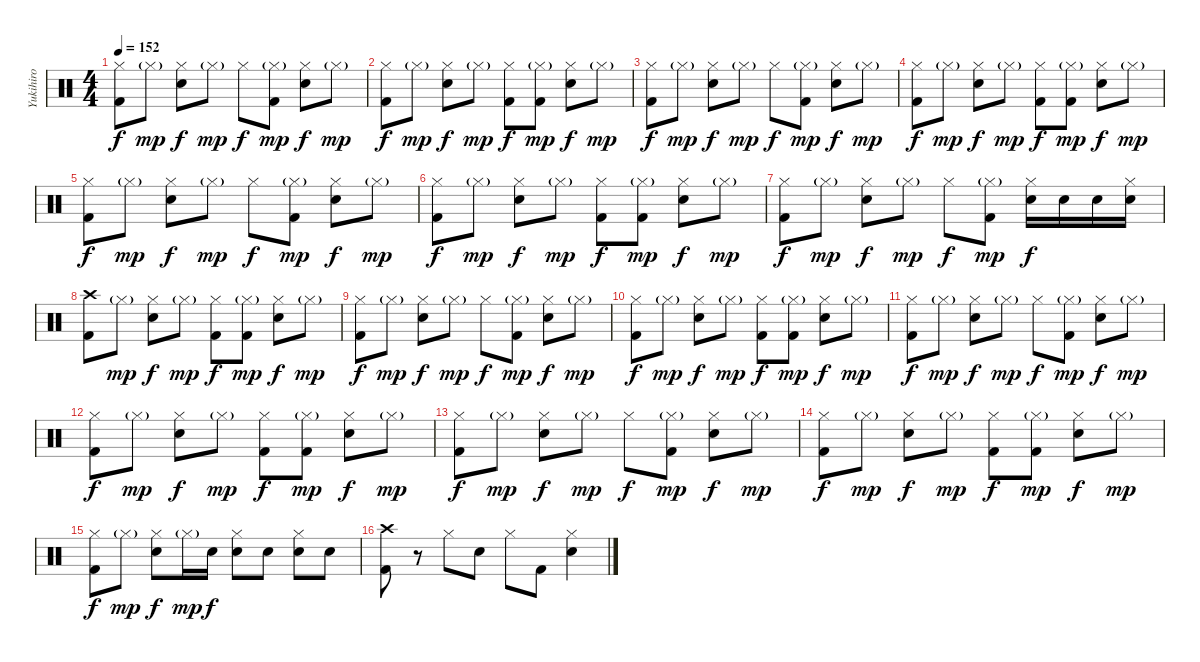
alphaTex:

\track ("Yukihiro" "Yukihiro") {instrument percussion}
\staff {score}
\articulation defaults
\ts (4 4)
\tempo 152
\clef neutral
\ks c
("Hi-Hat (closed)" "Kick (hit) 2").8{dy f} "Hi-Hat (closed)"{g}.8{dy mp} ("Hi-Hat (closed)" "Electric Snare (hit)").8{dy f} "Hi-Hat (closed)"{g}.8{dy mp} "Hi-Hat (closed)".8{dy f} ("Hi-Hat (closed)"{g} "Kick (hit) 2").8{dy mp} ("Hi-Hat (closed)" "Electric Snare (hit)").8{dy f} "Hi-Hat (closed)"{g}.8{dy mp} |
("Hi-Hat (closed)" "Kick (hit) 2").8{dy f} "Hi-Hat (closed)"{g}.8{dy mp} ("Hi-Hat (closed)" "Electric Snare (hit)").8{dy f} "Hi-Hat (closed)"{g}.8{dy mp} ("Hi-Hat (closed)" "Kick (hit) 2").8{dy f} ("Hi-Hat (closed)"{g} "Kick (hit) 2").8{dy mp} ("Hi-Hat (closed)" "Electric Snare (hit)").8{dy f} "Hi-Hat (closed)"{g}.8{dy mp} |
("Hi-Hat (closed)" "Kick (hit) 2").8{dy f} "Hi-Hat (closed)"{g}.8{dy mp} ("Hi-Hat (closed)" "Electric Snare (hit)").8{dy f} "Hi-Hat (closed)"{g}.8{dy mp} "Hi-Hat (closed)".8{dy f} ("Hi-Hat (closed)"{g} "Kick (hit) 2").8{dy mp} ("Hi-Hat (closed)" "Electric Snare (hit)").8{dy f} "Hi-Hat (closed)"{g}.8{dy mp} |
("Hi-Hat (closed)" "Kick (hit) 2").8{dy f} "Hi-Hat (closed)"{g}.8{dy mp} ("Hi-Hat (closed)" "Electric Snare (hit)").8{dy f} "Hi-Hat (closed)"{g}.8{dy mp} ("Hi-Hat (closed)" "Kick (hit) 2").8{dy f} ("Hi-Hat (closed)"{g} "Kick (hit) 2").8{dy mp} ("Hi-Hat (closed)" "Electric Snare (hit)").8{dy f} "Hi-Hat (closed)"{g}.8{dy mp} |
("Hi-Hat (closed)" "Kick (hit) 2").8{dy f} "Hi-Hat (closed)"{g}.8{dy mp} ("Hi-Hat (closed)" "Electric Snare (hit)").8{dy f} "Hi-Hat (closed)"{g}.8{dy mp} "Hi-Hat (closed)".8{dy f} ("Hi-Hat (closed)"{g} "Kick (hit) 2").8{dy mp} ("Hi-Hat (closed)" "Electric Snare (hit)").8{dy f} "Hi-Hat (closed)"{g}.8{dy mp} |
("Hi-Hat (closed)" "Kick (hit) 2").8{dy f} "Hi-Hat (closed)"{g}.8{dy mp} ("Hi-Hat (closed)" "Electric Snare (hit)").8{dy f} "Hi-Hat (closed)"{g}.8{dy mp} ("Hi-Hat (closed)" "Kick (hit) 2").8{dy f} ("Hi-Hat (closed)"{g} "Kick (hit) 2").8{dy mp} ("Hi-Hat (closed)" "Electric Snare (hit)").8{dy f} "Hi-Hat (closed)"{g}.8{dy mp} |
("Hi-Hat (closed)" "Kick (hit) 2").8{dy f} "Hi-Hat (closed)"{g}.8{dy mp} ("Hi-Hat (closed)" "Electric Snare (hit)").8{dy f} "Hi-Hat (closed)"{g}.8{dy mp} "Hi-Hat (closed)".8{dy f} ("Hi-Hat (closed)"{g} "Kick (hit) 2").8{dy mp} ("Hi-Hat (closed)" "Electric Snare (hit)").16{dy f} "Electric Snare (hit)".16 "Electric Snare (hit)".16 ("Hi-Hat (closed)" "Electric Snare (hit)").16 |
("Crash high (hit)" "Kick (hit) 2").8 "Hi-Hat (closed)"{g}.8{dy mp} ("Hi-Hat (closed)" "Electric Snare (hit)").8{dy f} "Hi-Hat (closed)"{g}.8{dy mp} ("Hi-Hat (closed)" "Kick (hit) 2").8{dy f} ("Hi-Hat (closed)"{g} "Kick (hit) 2").8{dy mp} ("Hi-Hat (closed)" "Electric Snare (hit)").8{dy f} "Hi-Hat (closed)"{g}.8{dy mp} |
("Hi-Hat (closed)" "Kick (hit) 2").8{dy f} "Hi-Hat (closed)"{g}.8{dy mp} ("Hi-Hat (closed)" "Electric Snare (hit)").8{dy f} "Hi-Hat (closed)"{g}.8{dy mp} "Hi-Hat (closed)".8{dy f} ("Hi-Hat (closed)"{g} "Kick (hit) 2").8{dy mp} ("Hi-Hat (closed)" "Electric Snare (hit)").8{dy f} "Hi-Hat (closed)"{g}.8{dy mp} |
("Hi-Hat (closed)" "Kick (hit) 2").8{dy f} "Hi-Hat (closed)"{g}.8{dy mp} ("Hi-Hat (closed)" "Electric Snare (hit)").8{dy f} "Hi-Hat (closed)"{g}.8{dy mp} ("Hi-Hat (closed)" "Kick (hit) 2").8{dy f} ("Hi-Hat (closed)"{g} "Kick (hit) 2").8{dy mp} ("Hi-Hat (closed)" "Electric Snare (hit)").8{dy f} "Hi-Hat (closed)"{g}.8{dy mp} |
("Hi-Hat (closed)" "Kick (hit) 2").8{dy f} "Hi-Hat (closed)"{g}.8{dy mp} ("Hi-Hat (closed)" "Electric Snare (hit)").8{dy f} "Hi-Hat (closed)"{g}.8{dy mp} "Hi-Hat (closed)".8{dy f} ("Hi-Hat (closed)"{g} "Kick (hit) 2").8{dy mp} ("Hi-Hat (closed)" "Electric Snare (hit)").8{dy f} "Hi-Hat (closed)"{g}.8{dy mp} |
("Hi-Hat (closed)" "Kick (hit) 2").8{dy f} "Hi-Hat (closed)"{g}.8{dy mp} ("Hi-Hat (closed)" "Electric Snare (hit)").8{dy f} "Hi-Hat (closed)"{g}.8{dy mp} ("Hi-Hat (closed)" "Kick (hit) 2").8{dy f} ("Hi-Hat (closed)"{g} "Kick (hit) 2").8{dy mp} ("Hi-Hat (closed)" "Electric Snare (hit)").8{dy f} "Hi-Hat (closed)"{g}.8{dy mp} |
("Hi-Hat (closed)" "Kick (hit) 2").8{dy f} "Hi-Hat (closed)"{g}.8{dy mp} ("Hi-Hat (closed)" "Electric Snare (hit)").8{dy f} "Hi-Hat (closed)"{g}.8{dy mp} "Hi-Hat (closed)".8{dy f} ("Hi-Hat (closed)"{g} "Kick (hit) 2").8{dy mp} ("Hi-Hat (closed)" "Electric Snare (hit)").8{dy f} "Hi-Hat (closed)"{g}.8{dy mp} |
("Hi-Hat (closed)" "Kick (hit) 2").8{dy f} "Hi-Hat (closed)"{g}.8{dy mp} ("Hi-Hat (closed)" "Electric Snare (hit)").8{dy f} "Hi-Hat (closed)"{g}.8{dy mp} ("Hi-Hat (closed)" "Kick (hit) 2").8{dy f} ("Hi-Hat (closed)"{g} "Kick (hit) 2").8{dy mp} ("Hi-Hat (closed)" "Electric Snare (hit)").8{dy f} "Hi-Hat (closed)"{g}.8{dy mp} |
("Hi-Hat (closed)" "Kick (hit) 2").8{dy f} "Hi-Hat (closed)"{g}.8{dy mp} ("Hi-Hat (closed)" "Electric Snare (hit)").8{dy f} "Hi-Hat (closed)"{g}.16{dy mp} "Electric Snare (hit)".16{dy f} ("Hi-Hat (closed)" "Electric Snare (hit)").8 "Electric Snare (hit)".8 ("Hi-Hat (closed)" "Electric Snare (hit)").8 "Electric Snare (hit)".8 |
("Crash high (hit)" "Kick (hit) 2").8 r.8 "Hi-Hat (closed)".8 "Electric Snare (hit)".8 "Hi-Hat (closed)".8 "Kick (hit) 2".8 ("Hi-Hat (closed)" "Electric Snare (hit)").4
